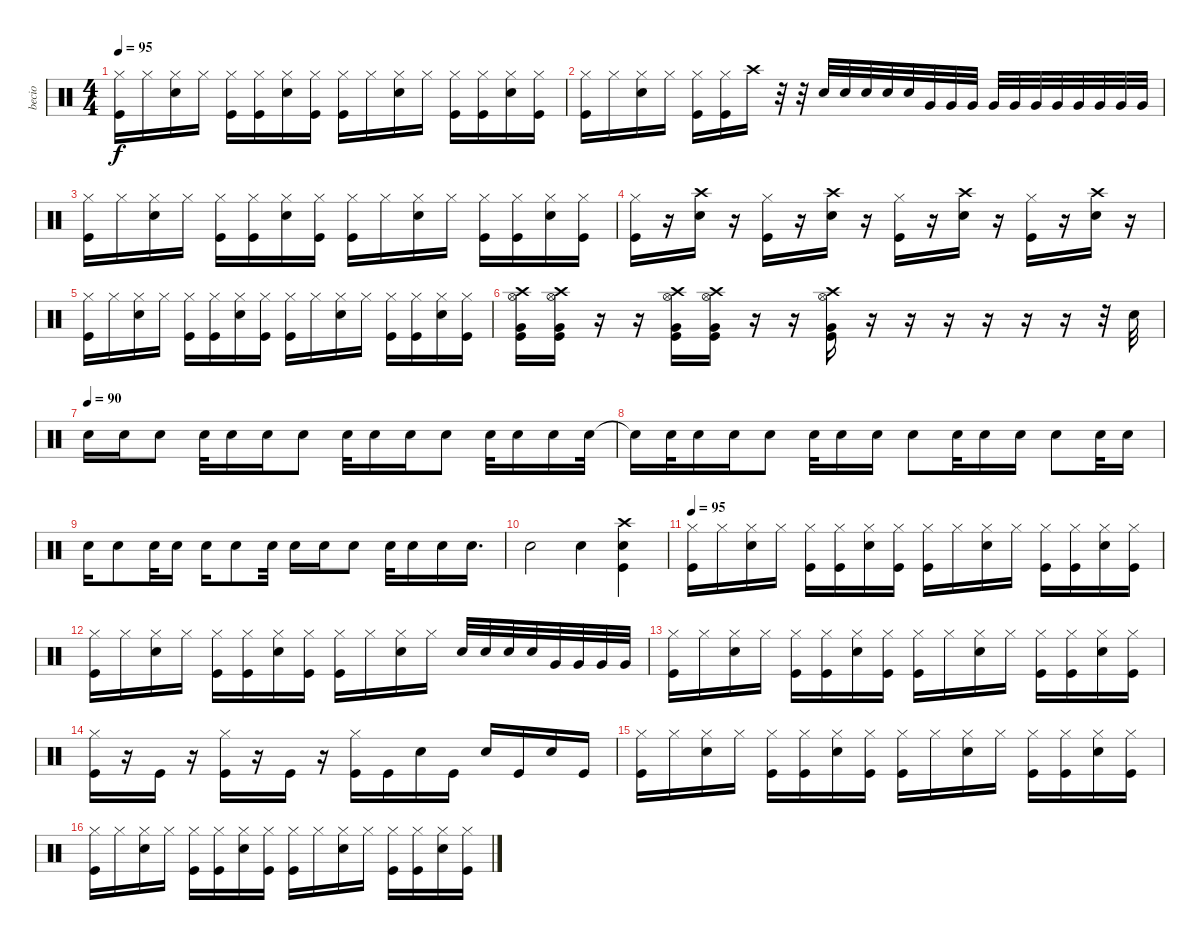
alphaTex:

\track ("becio" "becio") {instrument percussion}
\staff {score}
\articulation defaults
\ts (4 4)
\tempo 95
\clef neutral
\ks c
("Kick (hit)" "Hi-Hat (closed)").16{dy f} "Hi-Hat (closed)".16 ("Electric Snare (hit)" "Hi-Hat (closed)").16 "Hi-Hat (closed)".16 ("Kick (hit)" "Hi-Hat (closed)").16 ("Kick (hit)" "Hi-Hat (closed)").16 ("Electric Snare (hit)" "Hi-Hat (closed)").16 ("Kick (hit)" "Hi-Hat (closed)").16 ("Kick (hit)" "Hi-Hat (closed)").16 "Hi-Hat (closed)".16 ("Electric Snare (hit)" "Hi-Hat (closed)").16 "Hi-Hat (closed)".16 ("Kick (hit)" "Hi-Hat (closed)").16 ("Kick (hit)" "Hi-Hat (closed)").16 ("Electric Snare (hit)" "Hi-Hat (closed)").16 ("Kick (hit)" "Hi-Hat (closed)").16 |
("Kick (hit)" "Hi-Hat (closed)").16 "Hi-Hat (closed)".16 ("Electric Snare (hit)" "Hi-Hat (closed)").16 "Hi-Hat (closed)".16 ("Kick (hit)" "Hi-Hat (closed)").16 ("Kick (hit)" "Hi-Hat (closed)").16 "Crash high (hit)".16 r.32 r.32 "Electric Snare (hit)".32 "Electric Snare (hit)".32 "Electric Snare (hit)".32 "Electric Snare (hit)".32 "Electric Snare (hit)".32 "Very Low Tom (hit)".32 "Very Low Tom (hit)".32 "Very Low Tom (hit)".32 "Very Low Tom (hit)".32 "Very Low Tom (hit)".32 "Very Low Tom (hit)".32 "Very Low Tom (hit)".32 "Very Low Tom (hit)".32 "Very Low Tom (hit)".32 "Very Low Tom (hit)".32 "Very Low Tom (hit)".32 |
("Kick (hit)" "Hi-Hat (closed)").16 "Hi-Hat (closed)".16 ("Electric Snare (hit)" "Hi-Hat (closed)").16 "Hi-Hat (closed)".16 ("Kick (hit)" "Hi-Hat (closed)").16 ("Kick (hit)" "Hi-Hat (closed)").16 ("Electric Snare (hit)" "Hi-Hat (closed)").16 ("Kick (hit)" "Hi-Hat (closed)").16 ("Kick (hit)" "Hi-Hat (closed)").16 "Hi-Hat (closed)".16 ("Electric Snare (hit)" "Hi-Hat (closed)").16 "Hi-Hat (closed)".16 ("Kick (hit)" "Hi-Hat (closed)").16 ("Kick (hit)" "Hi-Hat (closed)").16 ("Electric Snare (hit)" "Hi-Hat (closed)").16 ("Kick (hit)" "Hi-Hat (closed)").16 |
("Kick (hit)" "Hi-Hat (closed)").16 r.16 ("Electric Snare (hit)" "Crash high (hit)").16 r.16 ("Kick (hit)" "Hi-Hat (closed)").16 r.16 ("Electric Snare (hit)" "Crash high (hit)").16 r.16 ("Kick (hit)" "Hi-Hat (closed)").16 r.16 ("Electric Snare (hit)" "Crash high (hit)").16 r.16 ("Kick (hit)" "Hi-Hat (closed)").16 r.16 ("Electric Snare (hit)" "Crash high (hit)").16 r.16 |
("Kick (hit)" "Hi-Hat (closed)").16 "Hi-Hat (closed)".16 ("Electric Snare (hit)" "Hi-Hat (closed)").16 "Hi-Hat (closed)".16 ("Kick (hit)" "Hi-Hat (closed)").16 ("Kick (hit)" "Hi-Hat (closed)").16 ("Electric Snare (hit)" "Hi-Hat (closed)").16 ("Kick (hit)" "Hi-Hat (closed)").16 ("Kick (hit)" "Hi-Hat (closed)").16 "Hi-Hat (closed)".16 ("Electric Snare (hit)" "Hi-Hat (closed)").16 "Hi-Hat (closed)".16 ("Kick (hit)" "Hi-Hat (closed)").16 ("Kick (hit)" "Hi-Hat (closed)").16 ("Electric Snare (hit)" "Hi-Hat (closed)").16 ("Kick (hit)" "Hi-Hat (closed)").16 |
("Kick (hit)" "Very Low Tom (hit)" "Hi-Hat (open)" "Crash high (hit)").16 ("Kick (hit)" "Very Low Tom (hit)" "Hi-Hat (open)" "Crash high (hit)").16 r.16 r.16 ("Kick (hit)" "Very Low Tom (hit)" "Hi-Hat (open)" "Crash high (hit)").16 ("Kick (hit)" "Very Low Tom (hit)" "Hi-Hat (open)" "Crash high (hit)").16 r.16 r.16 ("Kick (hit)" "Very Low Tom (hit)" "Hi-Hat (open)" "Crash high (hit)").16 r.16 r.16 r.16 r.16 r.16 r.16 r.32 "Electric Snare (hit)".32 |
\tempo (90)
"Electric Snare (hit)".16 "Electric Snare (hit)".16 "Electric Snare (hit)".8 "Electric Snare (hit)".32 "Electric Snare (hit)".16 "Electric Snare (hit)".16 "Electric Snare (hit)".8 "Electric Snare (hit)".32 "Electric Snare (hit)".16 "Electric Snare (hit)".16 "Electric Snare (hit)".8 "Electric Snare (hit)".32 "Electric Snare (hit)".16 "Electric Snare (hit)".16 "Electric Snare (hit)".32 |
"Electric Snare (hit)"{t}.16 "Electric Snare (hit)".32 "Electric Snare (hit)".16 "Electric Snare (hit)".16 "Electric Snare (hit)".8 "Electric Snare (hit)".32 "Electric Snare (hit)".16 "Electric Snare (hit)".16 "Electric Snare (hit)".8 "Electric Snare (hit)".32 "Electric Snare (hit)".16 "Electric Snare (hit)".16 "Electric Snare (hit)".8 "Electric Snare (hit)".32 "Electric Snare (hit)".16 |
"Electric Snare (hit)".16 "Electric Snare (hit)".8 "Electric Snare (hit)".32 "Electric Snare (hit)".16 "Electric Snare (hit)".16 "Electric Snare (hit)".8 "Electric Snare (hit)".32 "Electric Snare (hit)".16 "Electric Snare (hit)".16 "Electric Snare (hit)".8 "Electric Snare (hit)".32 "Electric Snare (hit)".16 "Electric Snare (hit)".16 "Electric Snare (hit)".16{d} |
"Electric Snare (hit)".2 "Electric Snare (hit)".4 ("Kick (hit)" "Electric Snare (hit)" "Crash high (hit)").4 |
\tempo 95
("Kick (hit)" "Hi-Hat (closed)").16 "Hi-Hat (closed)".16 ("Electric Snare (hit)" "Hi-Hat (closed)").16 "Hi-Hat (closed)".16 ("Kick (hit)" "Hi-Hat (closed)").16 ("Kick (hit)" "Hi-Hat (closed)").16 ("Electric Snare (hit)" "Hi-Hat (closed)").16 ("Kick (hit)" "Hi-Hat (closed)").16 ("Kick (hit)" "Hi-Hat (closed)").16 "Hi-Hat (closed)".16 ("Electric Snare (hit)" "Hi-Hat (closed)").16 "Hi-Hat (closed)".16 ("Kick (hit)" "Hi-Hat (closed)").16 ("Kick (hit)" "Hi-Hat (closed)").16 ("Electric Snare (hit)" "Hi-Hat (closed)").16 ("Kick (hit)" "Hi-Hat (closed)").16 |
("Kick (hit)" "Hi-Hat (closed)").16 "Hi-Hat (closed)".16 ("Electric Snare (hit)" "Hi-Hat (closed)").16 "Hi-Hat (closed)".16 ("Kick (hit)" "Hi-Hat (closed)").16 ("Kick (hit)" "Hi-Hat (closed)").16 ("Electric Snare (hit)" "Hi-Hat (closed)").16 ("Kick (hit)" "Hi-Hat (closed)").16 ("Kick (hit)" "Hi-Hat (closed)").16 "Hi-Hat (closed)".16 ("Electric Snare (hit)" "Hi-Hat (closed)").16 "Hi-Hat (closed)".16 "Electric Snare (hit)".32 "Electric Snare (hit)".32 "Electric Snare (hit)".32 "Electric Snare (hit)".32 "Very Low Tom (hit)".32 "Very Low Tom (hit)".32 "Very Low Tom (hit)".32 "Very Low Tom (hit)".32 |
("Kick (hit)" "Hi-Hat (closed)").16 "Hi-Hat (closed)".16 ("Electric Snare (hit)" "Hi-Hat (closed)").16 "Hi-Hat (closed)".16 ("Kick (hit)" "Hi-Hat (closed)").16 ("Kick (hit)" "Hi-Hat (closed)").16 ("Electric Snare (hit)" "Hi-Hat (closed)").16 ("Kick (hit)" "Hi-Hat (closed)").16 ("Kick (hit)" "Hi-Hat (closed)").16 "Hi-Hat (closed)".16 ("Electric Snare (hit)" "Hi-Hat (closed)").16 "Hi-Hat (closed)".16 ("Kick (hit)" "Hi-Hat (closed)").16 ("Kick (hit)" "Hi-Hat (closed)").16 ("Electric Snare (hit)" "Hi-Hat (closed)").16 ("Kick (hit)" "Hi-Hat (closed)").16 |
("Kick (hit)" "Hi-Hat (closed)").16 r.16 "Kick (hit)".16 r.16 ("Kick (hit)" "Hi-Hat (closed)").16 r.16 "Kick (hit)".16 r.16 ("Kick (hit)" "Hi-Hat (closed)").16 "Kick (hit)".16 "Electric Snare (hit)".16 "Kick (hit)".16 "Electric Snare (hit)".16 "Kick (hit)".16 "Electric Snare (hit)".16 "Kick (hit)".16 |
("Kick (hit)" "Hi-Hat (closed)").16 "Hi-Hat (closed)".16 ("Electric Snare (hit)" "Hi-Hat (closed)").16 "Hi-Hat (closed)".16 ("Kick (hit)" "Hi-Hat (closed)").16 ("Kick (hit)" "Hi-Hat (closed)").16 ("Electric Snare (hit)" "Hi-Hat (closed)").16 ("Kick (hit)" "Hi-Hat (closed)").16 ("Kick (hit)" "Hi-Hat (closed)").16 "Hi-Hat (closed)".16 ("Electric Snare (hit)" "Hi-Hat (closed)").16 "Hi-Hat (closed)".16 ("Kick (hit)" "Hi-Hat (closed)").16 ("Kick (hit)" "Hi-Hat (closed)").16 ("Electric Snare (hit)" "Hi-Hat (closed)").16 ("Kick (hit)" "Hi-Hat (closed)").16 |
("Kick (hit)" "Hi-Hat (closed)").16 "Hi-Hat (closed)".16 ("Electric Snare (hit)" "Hi-Hat (closed)").16 "Hi-Hat (closed)".16 ("Kick (hit)" "Hi-Hat (closed)").16 ("Kick (hit)" "Hi-Hat (closed)").16 ("Electric Snare (hit)" "Hi-Hat (closed)").16 ("Kick (hit)" "Hi-Hat (closed)").16 ("Kick (hit)" "Hi-Hat (closed)").16 "Hi-Hat (closed)".16 ("Electric Snare (hit)" "Hi-Hat (closed)").16 "Hi-Hat (closed)".16 ("Kick (hit)" "Hi-Hat (closed)").16 ("Kick (hit)" "Hi-Hat (closed)").16 ("Electric Snare (hit)" "Hi-Hat (closed)").16 ("Kick (hit)" "Hi-Hat (closed)").16
